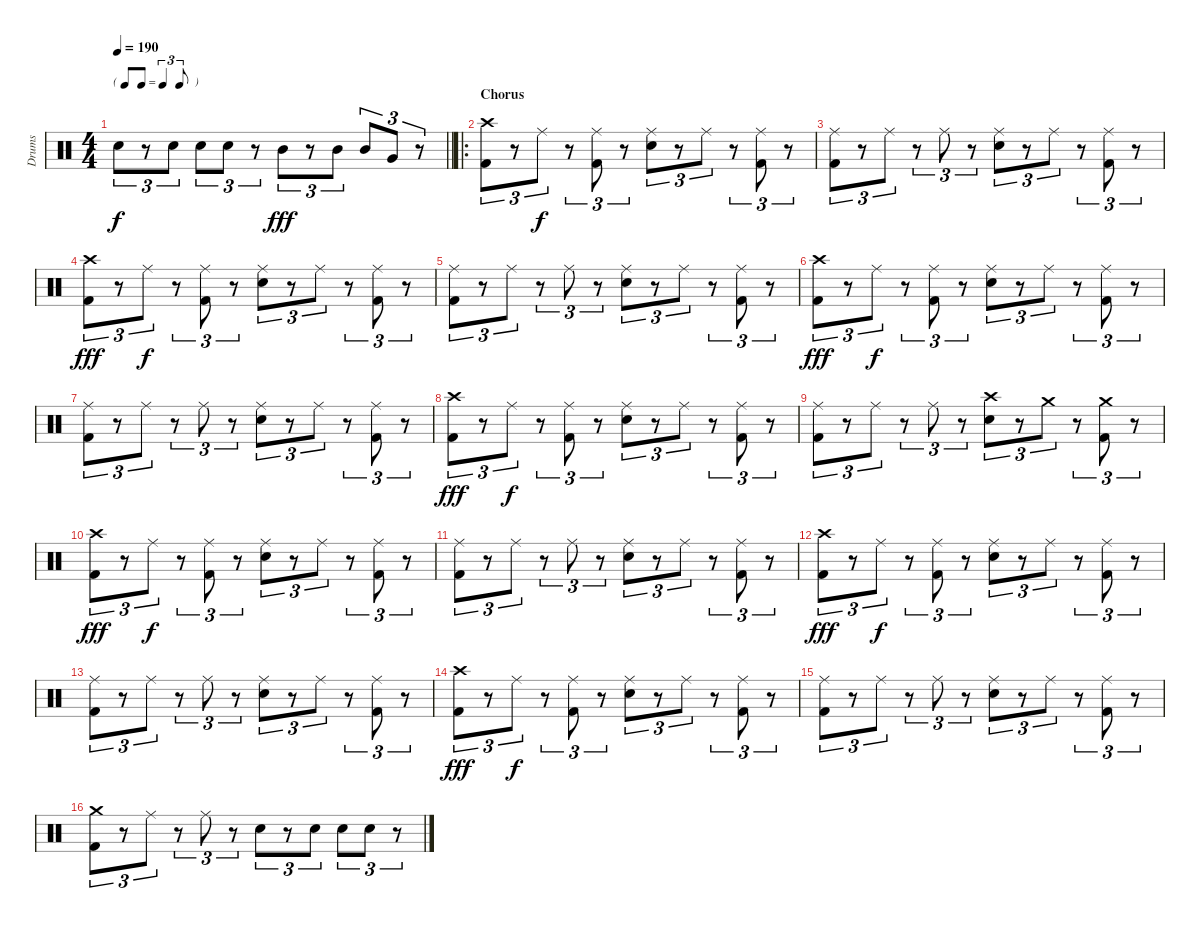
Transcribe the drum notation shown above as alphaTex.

\track ("Drums" "Drums") {instrument percussion}
\staff {score}
\articulation defaults
\ts (4 4)
\tf triplet8th
\tempo 190
\clef neutral
\barLineRight lightlight
\ks c "Electric Snare (hit)".8{tu (3 2) dy f}
r.8{tu (3 2)} "Electric Snare (hit)".8{tu (3 2)} "Electric Snare (hit)".8{tu (3 2)} "Electric Snare (hit)".8{tu (3 2)} r.8{tu (3 2)} "Mid Tom (hit)".8{tu (3 2) dy fff} r.8{tu (3 2)} "Mid Tom (hit)".8{tu (3 2)} "Mid Tom (hit)".8{tu (3 2)} "Very Low Tom (hit)".8{tu (3 2)} r.8{tu (3 2)} |
\ro
\section ("" "Chorus")
("Crash high (hit)" "Kick (hit) 2").8{tu (3 2)} r.8{tu (3 2)} "Ride (middle)".8{tu (3 2) dy f} r.8{tu (3 2)} ("Ride (middle)" "Kick (hit) 2").8{tu (3 2)} r.8{tu (3 2)} ("Ride (middle)" "Electric Snare (hit)").8{tu (3 2)} r.8{tu (3 2)} "Ride (middle)".8{tu (3 2)} r.8{tu (3 2)} ("Ride (middle)" "Kick (hit) 2").8{tu (3 2)} r.8{tu (3 2)} |
("Ride (middle)" "Kick (hit) 2").8{tu (3 2)} r.8{tu (3 2)} "Ride (middle)".8{tu (3 2)} r.8{tu (3 2)} "Ride (middle)".8{tu (3 2)} r.8{tu (3 2)} ("Ride (middle)" "Electric Snare (hit)").8{tu (3 2)} r.8{tu (3 2)} "Ride (middle)".8{tu (3 2)} r.8{tu (3 2)} ("Ride (middle)" "Kick (hit) 2").8{tu (3 2)} r.8{tu (3 2)} |
("Crash high (hit)" "Kick (hit) 2").8{tu (3 2) dy fff} r.8{tu (3 2)} "Ride (middle)".8{tu (3 2) dy f} r.8{tu (3 2)} ("Ride (middle)" "Kick (hit) 2").8{tu (3 2)} r.8{tu (3 2)} ("Ride (middle)" "Electric Snare (hit)").8{tu (3 2)} r.8{tu (3 2)} "Ride (middle)".8{tu (3 2)} r.8{tu (3 2)} ("Ride (middle)" "Kick (hit) 2").8{tu (3 2)} r.8{tu (3 2)} |
("Ride (middle)" "Kick (hit) 2").8{tu (3 2)} r.8{tu (3 2)} "Ride (middle)".8{tu (3 2)} r.8{tu (3 2)} "Ride (middle)".8{tu (3 2)} r.8{tu (3 2)} ("Ride (middle)" "Electric Snare (hit)").8{tu (3 2)} r.8{tu (3 2)} "Ride (middle)".8{tu (3 2)} r.8{tu (3 2)} ("Ride (middle)" "Kick (hit) 2").8{tu (3 2)} r.8{tu (3 2)} |
("Crash high (hit)" "Kick (hit) 2").8{tu (3 2) dy fff} r.8{tu (3 2)} "Ride (middle)".8{tu (3 2) dy f} r.8{tu (3 2)} ("Ride (middle)" "Kick (hit) 2").8{tu (3 2)} r.8{tu (3 2)} ("Ride (middle)" "Electric Snare (hit)").8{tu (3 2)} r.8{tu (3 2)} "Ride (middle)".8{tu (3 2)} r.8{tu (3 2)} ("Ride (middle)" "Kick (hit) 2").8{tu (3 2)} r.8{tu (3 2)} |
("Ride (middle)" "Kick (hit) 2").8{tu (3 2)} r.8{tu (3 2)} "Ride (middle)".8{tu (3 2)} r.8{tu (3 2)} "Ride (middle)".8{tu (3 2)} r.8{tu (3 2)} ("Ride (middle)" "Electric Snare (hit)").8{tu (3 2)} r.8{tu (3 2)} "Ride (middle)".8{tu (3 2)} r.8{tu (3 2)} ("Ride (middle)" "Kick (hit) 2").8{tu (3 2)} r.8{tu (3 2)} |
("Crash high (hit)" "Kick (hit) 2").8{tu (3 2) dy fff} r.8{tu (3 2)} "Ride (middle)".8{tu (3 2) dy f} r.8{tu (3 2)} ("Ride (middle)" "Kick (hit) 2").8{tu (3 2)} r.8{tu (3 2)} ("Ride (middle)" "Electric Snare (hit)").8{tu (3 2)} r.8{tu (3 2)} "Ride (middle)".8{tu (3 2)} r.8{tu (3 2)} ("Ride (middle)" "Kick (hit) 2").8{tu (3 2)} r.8{tu (3 2)} |
("Ride (middle)" "Kick (hit) 2").8{tu (3 2)} r.8{tu (3 2)} "Ride (middle)".8{tu (3 2)} r.8{tu (3 2)} "Ride (middle)".8{tu (3 2)} r.8{tu (3 2)} ("Crash high (hit)" "Electric Snare (hit)").8{tu (3 2)} r.8{tu (3 2)} "Crash medium (hit)".8{tu (3 2)} r.8{tu (3 2)} ("Crash medium (hit)" "Kick (hit) 2").8{tu (3 2)} r.8{tu (3 2)} |
("Crash high (hit)" "Kick (hit) 2").8{tu (3 2) dy fff} r.8{tu (3 2)} "Ride (middle)".8{tu (3 2) dy f} r.8{tu (3 2)} ("Ride (middle)" "Kick (hit) 2").8{tu (3 2)} r.8{tu (3 2)} ("Ride (middle)" "Electric Snare (hit)").8{tu (3 2)} r.8{tu (3 2)} "Ride (middle)".8{tu (3 2)} r.8{tu (3 2)} ("Ride (middle)" "Kick (hit) 2").8{tu (3 2)} r.8{tu (3 2)} |
("Ride (middle)" "Kick (hit) 2").8{tu (3 2)} r.8{tu (3 2)} "Ride (middle)".8{tu (3 2)} r.8{tu (3 2)} "Ride (middle)".8{tu (3 2)} r.8{tu (3 2)} ("Ride (middle)" "Electric Snare (hit)").8{tu (3 2)} r.8{tu (3 2)} "Ride (middle)".8{tu (3 2)} r.8{tu (3 2)} ("Ride (middle)" "Kick (hit) 2").8{tu (3 2)} r.8{tu (3 2)} |
("Crash high (hit)" "Kick (hit) 2").8{tu (3 2) dy fff} r.8{tu (3 2)} "Ride (middle)".8{tu (3 2) dy f} r.8{tu (3 2)} ("Ride (middle)" "Kick (hit) 2").8{tu (3 2)} r.8{tu (3 2)} ("Ride (middle)" "Electric Snare (hit)").8{tu (3 2)} r.8{tu (3 2)} "Ride (middle)".8{tu (3 2)} r.8{tu (3 2)} ("Ride (middle)" "Kick (hit) 2").8{tu (3 2)} r.8{tu (3 2)} |
("Ride (middle)" "Kick (hit) 2").8{tu (3 2)} r.8{tu (3 2)} "Ride (middle)".8{tu (3 2)} r.8{tu (3 2)} "Ride (middle)".8{tu (3 2)} r.8{tu (3 2)} ("Ride (middle)" "Electric Snare (hit)").8{tu (3 2)} r.8{tu (3 2)} "Ride (middle)".8{tu (3 2)} r.8{tu (3 2)} ("Ride (middle)" "Kick (hit) 2").8{tu (3 2)} r.8{tu (3 2)} |
("Crash high (hit)" "Kick (hit) 2").8{tu (3 2) dy fff} r.8{tu (3 2)} "Ride (middle)".8{tu (3 2) dy f} r.8{tu (3 2)} ("Ride (middle)" "Kick (hit) 2").8{tu (3 2)} r.8{tu (3 2)} ("Ride (middle)" "Electric Snare (hit)").8{tu (3 2)} r.8{tu (3 2)} "Ride (middle)".8{tu (3 2)} r.8{tu (3 2)} ("Ride (middle)" "Kick (hit) 2").8{tu (3 2)} r.8{tu (3 2)} |
("Ride (middle)" "Kick (hit) 2").8{tu (3 2)} r.8{tu (3 2)} "Ride (middle)".8{tu (3 2)} r.8{tu (3 2)} "Ride (middle)".8{tu (3 2)} r.8{tu (3 2)} ("Ride (middle)" "Electric Snare (hit)").8{tu (3 2)} r.8{tu (3 2)} "Ride (middle)".8{tu (3 2)} r.8{tu (3 2)} ("Ride (middle)" "Kick (hit) 2").8{tu (3 2)} r.8{tu (3 2)} |
("Crash medium (hit)" "Kick (hit) 2").8{tu (3 2)} r.8{tu (3 2)} "Ride (middle)".8{tu (3 2)} r.8{tu (3 2)} "Ride (middle)".8{tu (3 2)} r.8{tu (3 2)} "Electric Snare (hit)".8{tu (3 2)} r.8{tu (3 2)} "Electric Snare (hit)".8{tu (3 2)} "Electric Snare (hit)".8{tu (3 2)} "Electric Snare (hit)".8{tu (3 2)} r.8{tu (3 2)}
